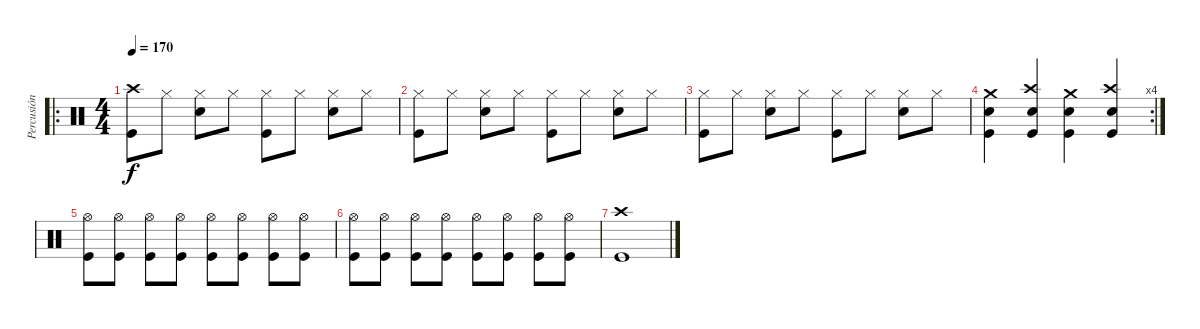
\track ("Percusión" "Percusión") {instrument percussion}
\staff {score}
\articulation defaults
\ro
\ts (4 4)
\tempo 170
\clef neutral
\ks c
("Kick (hit)" "Crash high (hit)").8{dy f} "Hi-Hat (closed)".8 ("Snare (hit) 2" "Hi-Hat (closed)").8 "Hi-Hat (closed)".8 ("Kick (hit)" "Hi-Hat (closed)").8 "Hi-Hat (closed)".8 ("Snare (hit) 2" "Hi-Hat (closed)").8 "Hi-Hat (closed)".8 |
("Kick (hit)" "Hi-Hat (closed)").8 "Hi-Hat (closed)".8 ("Snare (hit) 2" "Hi-Hat (closed)").8 "Hi-Hat (closed)".8 ("Kick (hit)" "Hi-Hat (closed)").8 "Hi-Hat (closed)".8 ("Snare (hit) 2" "Hi-Hat (closed)").8 "Hi-Hat (closed)".8 |
("Kick (hit)" "Hi-Hat (closed)").8 "Hi-Hat (closed)".8 ("Snare (hit) 2" "Hi-Hat (closed)").8 "Hi-Hat (closed)".8 ("Kick (hit)" "Hi-Hat (closed)").8 "Hi-Hat (closed)".8 ("Snare (hit) 2" "Hi-Hat (closed)").8 "Hi-Hat (closed)".8 |
\rc 4
("Kick (hit)" "Snare (hit) 2" "Crash medium (hit)").4 ("Kick (hit)" "Snare (hit) 2" "Crash high (hit)").4 ("Kick (hit)" "Snare (hit) 2" "Crash medium (hit)").4 ("Kick (hit)" "Snare (hit) 2" "Crash high (hit)").4 |
("Hi-Hat (open)" "Kick (hit)").8 ("Hi-Hat (open)" "Kick (hit)").8 ("Hi-Hat (open)" "Kick (hit)").8 ("Hi-Hat (open)" "Kick (hit)").8 ("Hi-Hat (open)" "Kick (hit)").8 ("Hi-Hat (open)" "Kick (hit)").8 ("Hi-Hat (open)" "Kick (hit)").8 ("Hi-Hat (open)" "Kick (hit)").8 |
("Hi-Hat (open)" "Kick (hit)").8 ("Hi-Hat (open)" "Kick (hit)").8 ("Hi-Hat (open)" "Kick (hit)").8 ("Hi-Hat (open)" "Kick (hit)").8 ("Hi-Hat (open)" "Kick (hit)").8 ("Hi-Hat (open)" "Kick (hit)").8 ("Hi-Hat (open)" "Kick (hit)").8 ("Hi-Hat (open)" "Kick (hit)").8 |
("Crash high (hit)" "Kick (hit)").1
